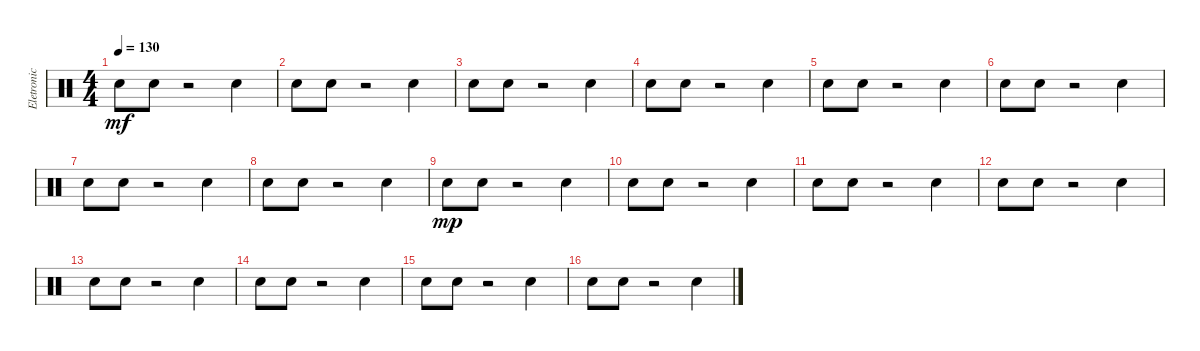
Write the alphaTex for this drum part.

\track ("Eletronic drum" "Eletronic ") {instrument percussion}
\staff {score}
\articulation defaults
\ts (4 4)
\tempo 130
\clef neutral
\ks c "Snare (hit) 2".8{dy mf} "Hand Clap (hit)".8
r.2 "Hand Clap (hit)".4 |
"Snare (hit) 2".8 "Hand Clap (hit)".8 r.2 "Hand Clap (hit)".4 |
"Snare (hit) 2".8 "Hand Clap (hit)".8 r.2 "Hand Clap (hit)".4 |
"Snare (hit) 2".8 "Hand Clap (hit)".8 r.2 "Hand Clap (hit)".4 |
"Snare (hit) 2".8 "Hand Clap (hit)".8 r.2 "Hand Clap (hit)".4 |
"Snare (hit) 2".8 "Hand Clap (hit)".8 r.2 "Hand Clap (hit)".4 |
"Snare (hit) 2".8 "Hand Clap (hit)".8 r.2 "Hand Clap (hit)".4 |
"Snare (hit) 2".8 "Hand Clap (hit)".8 r.2 "Hand Clap (hit)".4 |
"Snare (hit) 2".8{dy mp} "Hand Clap (hit)".8 r.2 "Hand Clap (hit)".4 |
"Snare (hit) 2".8 "Hand Clap (hit)".8 r.2 "Hand Clap (hit)".4 |
"Snare (hit) 2".8 "Hand Clap (hit)".8 r.2 "Hand Clap (hit)".4 |
"Snare (hit) 2".8 "Hand Clap (hit)".8 r.2 "Hand Clap (hit)".4 |
"Snare (hit) 2".8 "Hand Clap (hit)".8 r.2 "Hand Clap (hit)".4 |
"Snare (hit) 2".8 "Hand Clap (hit)".8 r.2 "Hand Clap (hit)".4 |
"Snare (hit) 2".8 "Hand Clap (hit)".8 r.2 "Hand Clap (hit)".4 |
"Snare (hit) 2".8 "Hand Clap (hit)".8 r.2 "Hand Clap (hit)".4
